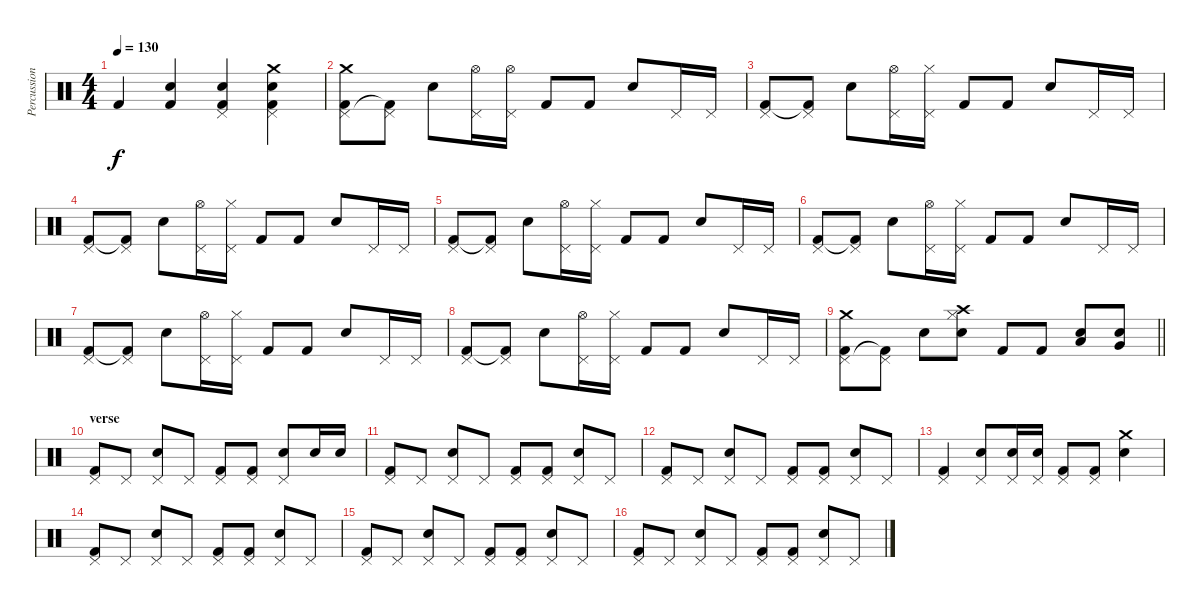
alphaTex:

\track ("Percussion" "Percussion") {instrument percussion}
\staff {score}
\articulation defaults
\ts (4 4)
\tempo 130
\clef neutral
\ks c "Kick (hit) 2".4{dy f}
("Electric Snare (hit)" "Kick (hit) 2").4 ("Pedal Hi-Hat (hit)" "Electric Snare (hit)" "Kick (hit) 2").4 ("Crash medium (hit)" "Pedal Hi-Hat (hit)" "Electric Snare (hit)" "Kick (hit) 2").4 |
("Crash medium (hit)" "Pedal Hi-Hat (hit)" "Kick (hit) 2").8 ("Pedal Hi-Hat (hit)" "Kick (hit) 2"{t}).8 "Electric Snare (hit)".8 ("Pedal Hi-Hat (hit)" "Hi-Hat (open)").16 ("Pedal Hi-Hat (hit)" "Hi-Hat (open)").16 "Kick (hit) 2".8 "Kick (hit) 2".8 "Electric Snare (hit)".8 "Pedal Hi-Hat (hit)".16 "Pedal Hi-Hat (hit)".16 |
("Pedal Hi-Hat (hit)" "Kick (hit) 2").8 ("Pedal Hi-Hat (hit)" "Kick (hit) 2"{t}).8 "Electric Snare (hit)".8 ("Hi-Hat (open)" "Pedal Hi-Hat (hit)").16 ("Hi-Hat (closed)" "Pedal Hi-Hat (hit)").16 "Kick (hit) 2".8 "Kick (hit) 2".8 "Electric Snare (hit)".8 "Pedal Hi-Hat (hit)".16 "Pedal Hi-Hat (hit)".16 |
("Pedal Hi-Hat (hit)" "Kick (hit) 2").8 ("Pedal Hi-Hat (hit)" "Kick (hit) 2"{t}).8 "Electric Snare (hit)".8 ("Hi-Hat (open)" "Pedal Hi-Hat (hit)").16 ("Hi-Hat (closed)" "Pedal Hi-Hat (hit)").16 "Kick (hit) 2".8 "Kick (hit) 2".8 "Electric Snare (hit)".8 "Pedal Hi-Hat (hit)".16 "Pedal Hi-Hat (hit)".16 |
("Pedal Hi-Hat (hit)" "Kick (hit) 2").8 ("Pedal Hi-Hat (hit)" "Kick (hit) 2"{t}).8 "Electric Snare (hit)".8 ("Hi-Hat (open)" "Pedal Hi-Hat (hit)").16 ("Hi-Hat (closed)" "Pedal Hi-Hat (hit)").16 "Kick (hit) 2".8 "Kick (hit) 2".8 "Electric Snare (hit)".8 "Pedal Hi-Hat (hit)".16 "Pedal Hi-Hat (hit)".16 |
("Pedal Hi-Hat (hit)" "Kick (hit) 2").8 ("Pedal Hi-Hat (hit)" "Kick (hit) 2"{t}).8 "Electric Snare (hit)".8 ("Hi-Hat (open)" "Pedal Hi-Hat (hit)").16 ("Hi-Hat (closed)" "Pedal Hi-Hat (hit)").16 "Kick (hit) 2".8 "Kick (hit) 2".8 "Electric Snare (hit)".8 "Pedal Hi-Hat (hit)".16 "Pedal Hi-Hat (hit)".16 |
("Pedal Hi-Hat (hit)" "Kick (hit) 2").8 ("Pedal Hi-Hat (hit)" "Kick (hit) 2"{t}).8 "Electric Snare (hit)".8 ("Hi-Hat (open)" "Pedal Hi-Hat (hit)").16 ("Hi-Hat (closed)" "Pedal Hi-Hat (hit)").16 "Kick (hit) 2".8 "Kick (hit) 2".8 "Electric Snare (hit)".8 "Pedal Hi-Hat (hit)".16 "Pedal Hi-Hat (hit)".16 |
("Pedal Hi-Hat (hit)" "Kick (hit) 2").8 ("Pedal Hi-Hat (hit)" "Kick (hit) 2"{t}).8 "Electric Snare (hit)".8 ("Hi-Hat (open)" "Pedal Hi-Hat (hit)").16 ("Hi-Hat (closed)" "Pedal Hi-Hat (hit)").16 "Kick (hit) 2".8 "Kick (hit) 2".8 "Electric Snare (hit)".8 "Pedal Hi-Hat (hit)".16 "Pedal Hi-Hat (hit)".16 |
\barLineRight lightlight
("Crash medium (hit)" "Pedal Hi-Hat (hit)" "Kick (hit) 2").8 ("Pedal Hi-Hat (hit)" "Kick (hit) 2"{t}).8 "Electric Snare (hit)".8 ("Crash high (hit)" "Hi-Hat (closed)" "Electric Snare (hit)").8 "Kick (hit) 2".8 "Kick (hit) 2".8 ("Electric Snare (hit)" "Low Floor Tom (hit)").8 ("Electric Snare (hit)" "Very Low Tom (hit)").8 |
\section ("" "verse")
("Pedal Hi-Hat (hit)" "Kick (hit) 2").8 "Pedal Hi-Hat (hit)".8 ("Pedal Hi-Hat (hit)" "Electric Snare (hit)").8 "Pedal Hi-Hat (hit)".8 ("Pedal Hi-Hat (hit)" "Kick (hit) 2").8 ("Pedal Hi-Hat (hit)" "Kick (hit) 2").8 ("Pedal Hi-Hat (hit)" "Electric Snare (hit)").8 "Electric Snare (hit)".16 "Electric Snare (hit)".16 |
("Pedal Hi-Hat (hit)" "Kick (hit) 2").8 "Pedal Hi-Hat (hit)".8 ("Pedal Hi-Hat (hit)" "Electric Snare (hit)").8 "Pedal Hi-Hat (hit)".8 ("Pedal Hi-Hat (hit)" "Kick (hit) 2").8 ("Pedal Hi-Hat (hit)" "Kick (hit) 2").8 ("Pedal Hi-Hat (hit)" "Electric Snare (hit)").8 "Pedal Hi-Hat (hit)".8 |
("Pedal Hi-Hat (hit)" "Kick (hit) 2").8 "Pedal Hi-Hat (hit)".8 ("Pedal Hi-Hat (hit)" "Electric Snare (hit)").8 "Pedal Hi-Hat (hit)".8 ("Pedal Hi-Hat (hit)" "Kick (hit) 2").8 ("Pedal Hi-Hat (hit)" "Kick (hit) 2").8 ("Pedal Hi-Hat (hit)" "Electric Snare (hit)").8 "Pedal Hi-Hat (hit)".8 |
("Pedal Hi-Hat (hit)" "Kick (hit) 2").4 ("Pedal Hi-Hat (hit)" "Electric Snare (hit)").8 ("Pedal Hi-Hat (hit)" "Electric Snare (hit)").16 ("Pedal Hi-Hat (hit)" "Electric Snare (hit)").16 ("Pedal Hi-Hat (hit)" "Kick (hit) 2").8 ("Pedal Hi-Hat (hit)" "Kick (hit) 2").8 ("Crash medium (hit)" "Electric Snare (hit)").4 |
("Pedal Hi-Hat (hit)" "Kick (hit) 2").8 "Pedal Hi-Hat (hit)".8 ("Pedal Hi-Hat (hit)" "Electric Snare (hit)").8 "Pedal Hi-Hat (hit)".8 ("Pedal Hi-Hat (hit)" "Kick (hit) 2").8 ("Pedal Hi-Hat (hit)" "Kick (hit) 2").8 ("Pedal Hi-Hat (hit)" "Electric Snare (hit)").8 "Pedal Hi-Hat (hit)".8 |
("Pedal Hi-Hat (hit)" "Kick (hit) 2").8 "Pedal Hi-Hat (hit)".8 ("Pedal Hi-Hat (hit)" "Electric Snare (hit)").8 "Pedal Hi-Hat (hit)".8 ("Pedal Hi-Hat (hit)" "Kick (hit) 2").8 ("Pedal Hi-Hat (hit)" "Kick (hit) 2").8 ("Pedal Hi-Hat (hit)" "Electric Snare (hit)").8 "Pedal Hi-Hat (hit)".8 |
("Pedal Hi-Hat (hit)" "Kick (hit) 2").8 "Pedal Hi-Hat (hit)".8 ("Pedal Hi-Hat (hit)" "Electric Snare (hit)").8 "Pedal Hi-Hat (hit)".8 ("Pedal Hi-Hat (hit)" "Kick (hit) 2").8 ("Pedal Hi-Hat (hit)" "Kick (hit) 2").8 ("Pedal Hi-Hat (hit)" "Electric Snare (hit)").8 "Pedal Hi-Hat (hit)".8
